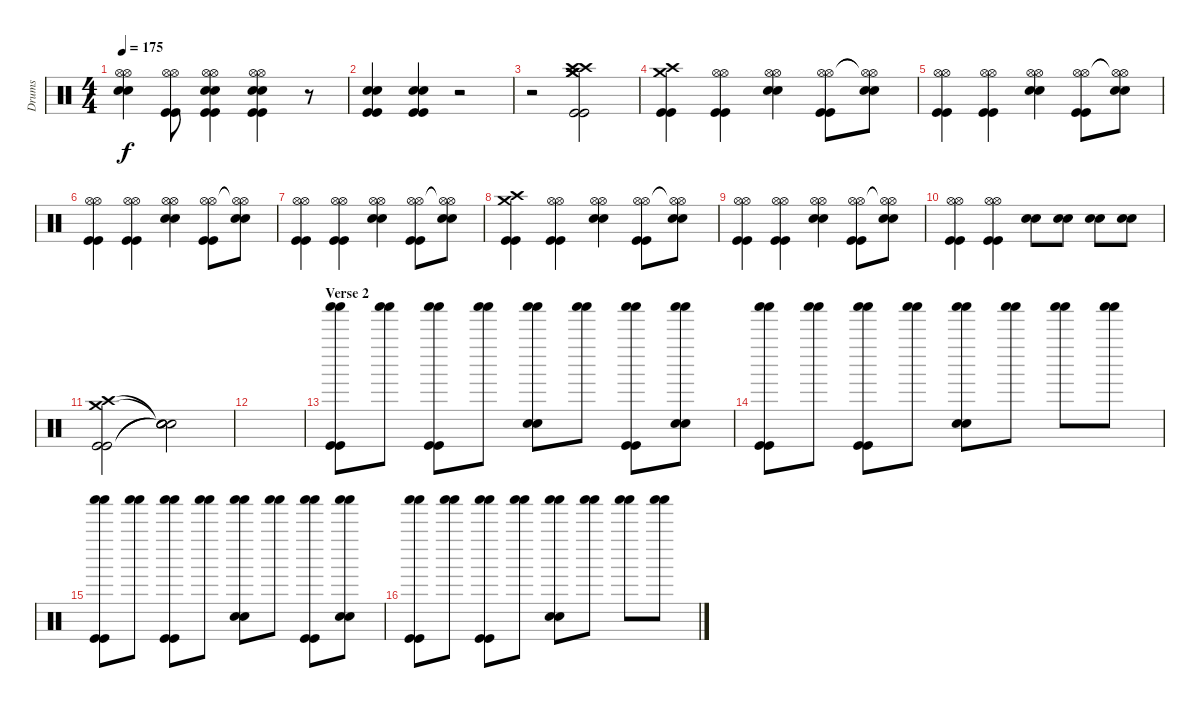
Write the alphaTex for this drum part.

\track ("Drums" "Drums") {instrument percussion}
\staff {score}
\articulation defaults
\ts (4 4)
\tempo 175
\clef neutral
\ks c
("Hi-Hat (open)" "Hi-Hat (open)" "Electric Snare (hit)" "Electric Snare (hit)").4{dy f} ("Hi-Hat (open)" "Hi-Hat (open)" "Kick (hit)" "Kick (hit)").8 ("Hi-Hat (open)" "Hi-Hat (open)" "Electric Snare (hit)" "Electric Snare (hit)" "Kick (hit)" "Kick (hit)").4 ("Hi-Hat (open)" "Hi-Hat (open)" "Electric Snare (hit)" "Electric Snare (hit)" "Kick (hit)" "Kick (hit)").4 r.8 |
("Electric Snare (hit)" "Electric Snare (hit)" "Kick (hit)" "Kick (hit)").4 ("Electric Snare (hit)" "Electric Snare (hit)" "Kick (hit)" "Kick (hit)").4 r.2 |
r.2 ("Crash high (hit)" "Crash high (hit)" "Crash medium (hit)" "Crash medium (hit)" "Kick (hit)" "Kick (hit)").2 |
("Crash high (hit)" "Crash medium (hit)" "Kick (hit)" "Kick (hit)").4 ("Hi-Hat (open)" "Hi-Hat (open)" "Kick (hit)" "Kick (hit)").4 ("Hi-Hat (open)" "Hi-Hat (open)" "Electric Snare (hit)" "Electric Snare (hit)").4 ("Hi-Hat (open)" "Hi-Hat (open)" "Kick (hit)" "Kick (hit)").8 ("Hi-Hat (open)"{t} "Hi-Hat (open)"{t} "Electric Snare (hit)" "Electric Snare (hit)").8 |
("Hi-Hat (open)" "Hi-Hat (open)" "Kick (hit)" "Kick (hit)").4 ("Hi-Hat (open)" "Hi-Hat (open)" "Kick (hit)" "Kick (hit)").4 ("Hi-Hat (open)" "Hi-Hat (open)" "Electric Snare (hit)" "Electric Snare (hit)").4 ("Hi-Hat (open)" "Hi-Hat (open)" "Kick (hit)" "Kick (hit)").8 ("Hi-Hat (open)"{t} "Hi-Hat (open)"{t} "Electric Snare (hit)" "Electric Snare (hit)").8 |
("Hi-Hat (open)" "Hi-Hat (open)" "Kick (hit)" "Kick (hit)").4 ("Hi-Hat (open)" "Hi-Hat (open)" "Kick (hit)" "Kick (hit)").4 ("Hi-Hat (open)" "Hi-Hat (open)" "Electric Snare (hit)" "Electric Snare (hit)").4 ("Hi-Hat (open)" "Hi-Hat (open)" "Kick (hit)" "Kick (hit)").8 ("Hi-Hat (open)"{t} "Hi-Hat (open)"{t} "Electric Snare (hit)" "Electric Snare (hit)").8 |
("Hi-Hat (open)" "Hi-Hat (open)" "Kick (hit)" "Kick (hit)").4 ("Hi-Hat (open)" "Hi-Hat (open)" "Kick (hit)" "Kick (hit)").4 ("Hi-Hat (open)" "Hi-Hat (open)" "Electric Snare (hit)" "Electric Snare (hit)").4 ("Hi-Hat (open)" "Hi-Hat (open)" "Kick (hit)" "Kick (hit)").8 ("Hi-Hat (open)"{t} "Hi-Hat (open)"{t} "Electric Snare (hit)" "Electric Snare (hit)").8 |
("Crash high (hit)" "Crash medium (hit)" "Kick (hit)" "Kick (hit)").4 ("Hi-Hat (open)" "Hi-Hat (open)" "Kick (hit)" "Kick (hit)").4 ("Hi-Hat (open)" "Hi-Hat (open)" "Electric Snare (hit)" "Electric Snare (hit)").4 ("Hi-Hat (open)" "Hi-Hat (open)" "Kick (hit)" "Kick (hit)").8 ("Hi-Hat (open)"{t} "Hi-Hat (open)"{t} "Electric Snare (hit)" "Electric Snare (hit)").8 |
("Hi-Hat (open)" "Hi-Hat (open)" "Kick (hit)" "Kick (hit)").4 ("Hi-Hat (open)" "Hi-Hat (open)" "Kick (hit)" "Kick (hit)").4 ("Hi-Hat (open)" "Hi-Hat (open)" "Electric Snare (hit)" "Electric Snare (hit)").4 ("Hi-Hat (open)" "Hi-Hat (open)" "Kick (hit)" "Kick (hit)").8 ("Hi-Hat (open)"{t} "Hi-Hat (open)"{t} "Electric Snare (hit)" "Electric Snare (hit)").8 |
("Hi-Hat (open)" "Hi-Hat (open)" "Kick (hit)" "Kick (hit)").4 ("Hi-Hat (open)" "Hi-Hat (open)" "Kick (hit)" "Kick (hit)").4 ("Electric Snare (hit)" "Electric Snare (hit)").8 ("Electric Snare (hit)" "Electric Snare (hit)").8 ("Electric Snare (hit)" "Electric Snare (hit)").8 ("Electric Snare (hit)" "Electric Snare (hit)").8 |
("Crash high (hit)" "Crash medium (hit)" "Kick (hit)" "Kick (hit)").2 ("Snare (hit)"{t} "Snare (hit)"{t} "Snare (hit)"{t} "Snare (hit)"{t}).2 |
|
\section ("" "Verse 2")
("Shaker (hit)" "Shaker (hit)" "Kick (hit)" "Kick (hit)").8 ("Shaker (hit)" "Shaker (hit)").8 ("Shaker (hit)" "Shaker (hit)" "Kick (hit)" "Kick (hit)").8 ("Shaker (hit)" "Shaker (hit)").8 ("Shaker (hit)" "Shaker (hit)" "Electric Snare (hit)" "Electric Snare (hit)").8 ("Shaker (hit)" "Shaker (hit)").8 ("Shaker (hit)" "Shaker (hit)" "Kick (hit)" "Kick (hit)").8 ("Shaker (hit)" "Shaker (hit)" "Electric Snare (hit)" "Electric Snare (hit)").8 |
("Shaker (hit)" "Shaker (hit)" "Kick (hit)" "Kick (hit)").8 ("Shaker (hit)" "Shaker (hit)").8 ("Shaker (hit)" "Shaker (hit)" "Kick (hit)" "Kick (hit)").8 ("Shaker (hit)" "Shaker (hit)").8 ("Shaker (hit)" "Shaker (hit)" "Electric Snare (hit)" "Electric Snare (hit)").8 ("Shaker (hit)" "Shaker (hit)").8 ("Shaker (hit)" "Shaker (hit)").8 ("Shaker (hit)" "Shaker (hit)").8 |
("Shaker (hit)" "Shaker (hit)" "Kick (hit)" "Kick (hit)").8 ("Shaker (hit)" "Shaker (hit)").8 ("Shaker (hit)" "Shaker (hit)" "Kick (hit)" "Kick (hit)").8 ("Shaker (hit)" "Shaker (hit)").8 ("Shaker (hit)" "Shaker (hit)" "Electric Snare (hit)" "Electric Snare (hit)").8 ("Shaker (hit)" "Shaker (hit)").8 ("Shaker (hit)" "Shaker (hit)" "Kick (hit)" "Kick (hit)").8 ("Shaker (hit)" "Shaker (hit)" "Electric Snare (hit)" "Electric Snare (hit)").8 |
("Shaker (hit)" "Shaker (hit)" "Kick (hit)" "Kick (hit)").8 ("Shaker (hit)" "Shaker (hit)").8 ("Shaker (hit)" "Shaker (hit)" "Kick (hit)" "Kick (hit)").8 ("Shaker (hit)" "Shaker (hit)").8 ("Shaker (hit)" "Shaker (hit)" "Electric Snare (hit)" "Electric Snare (hit)").8 ("Shaker (hit)" "Shaker (hit)").8 ("Shaker (hit)" "Shaker (hit)").8 ("Shaker (hit)" "Shaker (hit)").8
